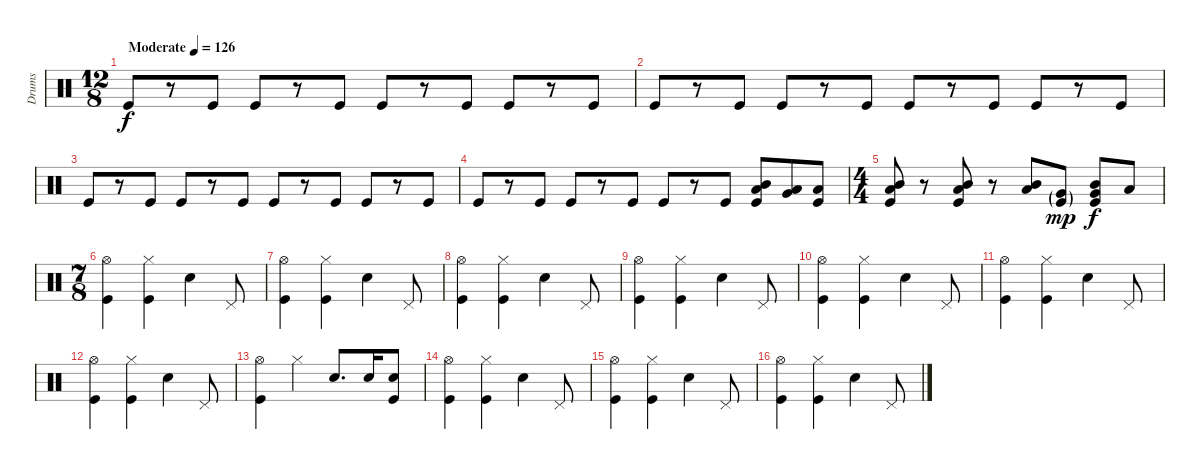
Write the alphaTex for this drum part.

\track ("Drums" "Drums") {instrument percussion}
\staff {score}
\articulation defaults
\ts (12 8)
\tempo (126 "Moderate")
\clef neutral
\ks c "Kick (hit)".8{dy f volume 13}
r.8 "Kick (hit)".8 "Kick (hit)".8 r.8 "Kick (hit)".8 "Kick (hit)".8 r.8 "Kick (hit)".8 "Kick (hit)".8 r.8 "Kick (hit)".8 |
"Kick (hit)".8 r.8 "Kick (hit)".8 "Kick (hit)".8 r.8 "Kick (hit)".8 "Kick (hit)".8 r.8 "Kick (hit)".8 "Kick (hit)".8 r.8 "Kick (hit)".8 |
"Kick (hit)".8 r.8 "Kick (hit)".8 "Kick (hit)".8 r.8 "Kick (hit)".8 "Kick (hit)".8 r.8 "Kick (hit)".8 "Kick (hit)".8 r.8 "Kick (hit)".8 |
"Kick (hit)".8 r.8 "Kick (hit)".8 "Kick (hit)".8 r.8 "Kick (hit)".8 "Kick (hit)".8 r.8 "Kick (hit)".8 ("Mid Tom (hit)" "Low Tom (hit)" "Kick (hit)").8 ("Very Low Tom (hit)" "Low Tom (hit)").8 ("Low Tom (hit)" "Kick (hit)").8 |
\ts (4 4)
("Mid Tom (hit)" "Low Tom (hit)" "Kick (hit)").8 r.8 ("Mid Tom (hit)" "Low Tom (hit)" "Kick (hit)").8 r.8 ("Mid Tom (hit)" "Low Tom (hit)").8 ("Very Low Tom (hit)"{g} "Kick (hit)"{g}).8{dy mp} ("Mid Tom (hit)" "Very Low Tom (hit)" "Kick (hit)").8{dy f} "Low Floor Tom (hit)".8 |
\ts (7 8)
("Hi-Hat (open)" "Kick (hit)").4 ("Hi-Hat (closed)" "Kick (hit)").4 "Snare (hit) 2".4 "Pedal Hi-Hat (hit)".8 |
("Hi-Hat (open)" "Kick (hit)").4 ("Hi-Hat (closed)" "Kick (hit)").4 "Snare (hit) 2".4 "Pedal Hi-Hat (hit)".8 |
("Hi-Hat (open)" "Kick (hit)").4 ("Hi-Hat (closed)" "Kick (hit)").4 "Snare (hit) 2".4 "Pedal Hi-Hat (hit)".8 |
("Hi-Hat (open)" "Kick (hit)").4 ("Hi-Hat (closed)" "Kick (hit)").4 "Snare (hit) 2".4 "Pedal Hi-Hat (hit)".8 |
("Hi-Hat (open)" "Kick (hit)").4 ("Hi-Hat (closed)" "Kick (hit)").4 "Snare (hit) 2".4 "Pedal Hi-Hat (hit)".8 |
("Hi-Hat (open)" "Kick (hit)").4 ("Hi-Hat (closed)" "Kick (hit)").4 "Snare (hit) 2".4 "Pedal Hi-Hat (hit)".8 |
("Hi-Hat (open)" "Kick (hit)").4 ("Hi-Hat (closed)" "Kick (hit)").4 "Snare (hit) 2".4 "Pedal Hi-Hat (hit)".8 |
("Hi-Hat (open)" "Kick (hit)").4 "Hi-Hat (closed)".4 "Snare (hit) 2".8{d} "Snare (hit) 2".16 ("Snare (hit) 2" "Kick (hit)").8 |
("Hi-Hat (open)" "Kick (hit)").4 ("Hi-Hat (closed)" "Kick (hit)").4 "Snare (hit) 2".4 "Pedal Hi-Hat (hit)".8 |
("Hi-Hat (open)" "Kick (hit)").4 ("Hi-Hat (closed)" "Kick (hit)").4 "Snare (hit) 2".4 "Pedal Hi-Hat (hit)".8 |
("Hi-Hat (open)" "Kick (hit)").4 ("Hi-Hat (closed)" "Kick (hit)").4 "Snare (hit) 2".4 "Pedal Hi-Hat (hit)".8
